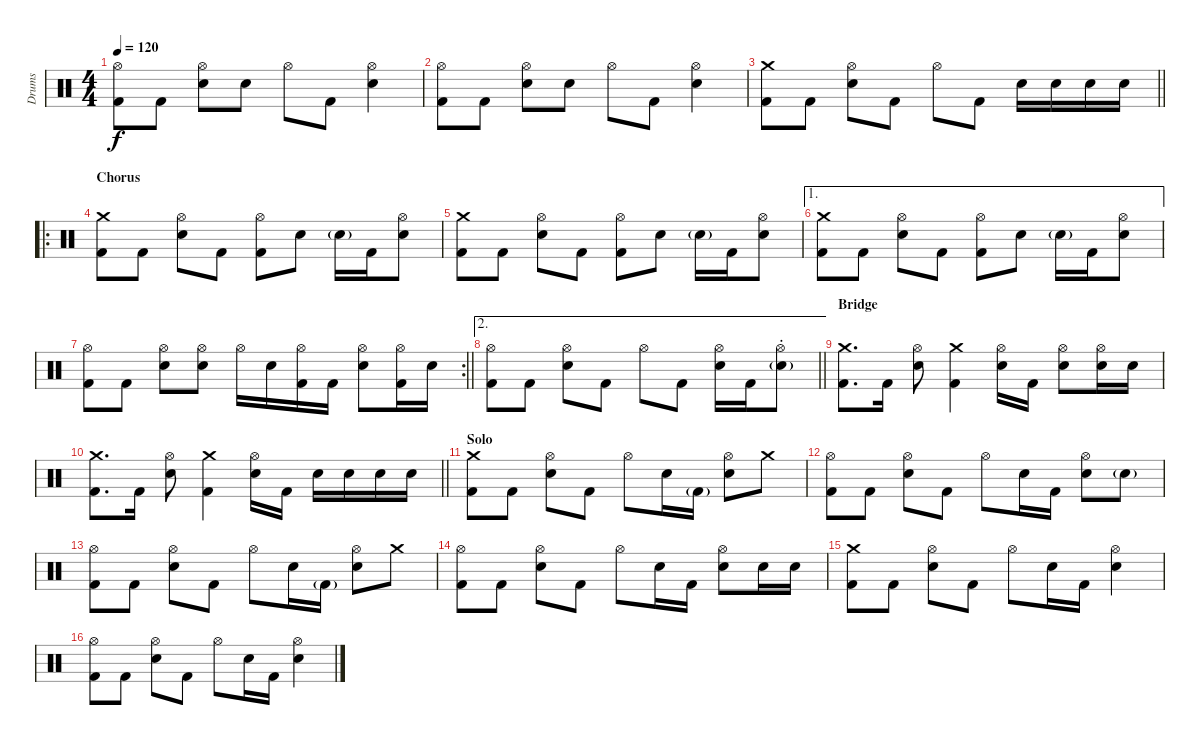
\track ("Drums" "Drums") {instrument percussion}
\staff {score}
\articulation defaults
\ts (4 4)
\tempo 120
\clef neutral
\ks c
("Hi-Hat (open)" "Kick (hit) 2").8{dy f} "Kick (hit) 2".8 ("Hi-Hat (open)" "Electric Snare (hit)").8 "Electric Snare (hit)".8 "Hi-Hat (open)".8 "Kick (hit) 2".8 ("Hi-Hat (open)" "Electric Snare (hit)").4 |
("Hi-Hat (open)" "Kick (hit) 2").8 "Kick (hit) 2".8 ("Hi-Hat (open)" "Electric Snare (hit)").8 "Electric Snare (hit)".8 "Hi-Hat (open)".8 "Kick (hit) 2".8 ("Hi-Hat (open)" "Electric Snare (hit)").4 |
\barLineRight lightlight
("Crash medium (hit)" "Kick (hit) 2").8 "Kick (hit) 2".8 ("Hi-Hat (open)" "Electric Snare (hit)").8 "Kick (hit) 2".8 "Hi-Hat (open)".8 "Kick (hit) 2".8 "Electric Snare (hit)".16 "Electric Snare (hit)".16 "Electric Snare (hit)".16 "Electric Snare (hit)".16 |
\ro
\section ("" "Chorus")
("Crash medium (hit)" "Kick (hit) 2").8 "Kick (hit) 2".8 ("Hi-Hat (open)" "Electric Snare (hit)").8 "Kick (hit) 2".8 ("Hi-Hat (open)" "Kick (hit) 2").8 "Electric Snare (hit)".8 "Electric Snare (hit)"{g}.16 "Kick (hit) 2".16 ("Hi-Hat (open)" "Electric Snare (hit)").8 |
("Crash medium (hit)" "Kick (hit) 2").8 "Kick (hit) 2".8 ("Hi-Hat (open)" "Electric Snare (hit)").8 "Kick (hit) 2".8 ("Hi-Hat (open)" "Kick (hit) 2").8 "Electric Snare (hit)".8 "Electric Snare (hit)"{g}.16 "Kick (hit) 2".16 ("Hi-Hat (open)" "Electric Snare (hit)").8 |
\ae 1
("Crash medium (hit)" "Kick (hit) 2").8 "Kick (hit) 2".8 ("Hi-Hat (open)" "Electric Snare (hit)").8 "Kick (hit) 2".8 ("Hi-Hat (open)" "Kick (hit) 2").8 "Electric Snare (hit)".8 "Electric Snare (hit)"{g}.16 "Kick (hit) 2".16 ("Hi-Hat (open)" "Electric Snare (hit)").8 |
\rc 2
\barLineRight lightlight
("Hi-Hat (open)" "Kick (hit) 2").8 "Kick (hit) 2".8 ("Hi-Hat (open)" "Electric Snare (hit)").8 ("Hi-Hat (open)" "Electric Snare (hit)").8 "Hi-Hat (open)".16 "Electric Snare (hit)".16 ("Hi-Hat (open)" "Kick (hit) 2").16 "Kick (hit) 2".16 ("Hi-Hat (open)" "Electric Snare (hit)").8 ("Hi-Hat (open)" "Kick (hit) 2").16 "Electric Snare (hit)".16 |
\ae 2
\barLineRight lightlight
("Hi-Hat (open)" "Kick (hit) 2").8 "Kick (hit) 2".8 ("Hi-Hat (open)" "Electric Snare (hit)").8 "Kick (hit) 2".8 "Hi-Hat (open)".8 "Kick (hit) 2".8 ("Hi-Hat (open)" "Electric Snare (hit)").16 "Kick (hit) 2".16 ("Hi-Hat (open)"{st} "Electric Snare (hit)"{g}).8 |
\section ("" "Bridge")
("Crash medium (hit)" "Kick (hit) 2").8{d} "Kick (hit) 2".16 ("Hi-Hat (open)" "Electric Snare (hit)").8 ("Crash medium (hit)" "Kick (hit) 2").4 ("Hi-Hat (open)" "Electric Snare (hit)").16 "Kick (hit) 2".16 ("Hi-Hat (open)" "Electric Snare (hit)").8 ("Hi-Hat (open)" "Electric Snare (hit)").16 "Electric Snare (hit)".16 |
\barLineRight lightlight
("Crash medium (hit)" "Kick (hit) 2").8{d} "Kick (hit) 2".16 ("Hi-Hat (open)" "Electric Snare (hit)").8 ("Crash medium (hit)" "Kick (hit) 2").4 ("Hi-Hat (open)" "Electric Snare (hit)").16 "Kick (hit) 2".16 "Electric Snare (hit)".16 "Electric Snare (hit)".16 "Electric Snare (hit)".16 "Electric Snare (hit)".16 |
\section ("" "Solo")
("Crash medium (hit)" "Kick (hit) 2").8 "Kick (hit) 2".8 ("Hi-Hat (open)" "Electric Snare (hit)").8 "Kick (hit) 2".8 "Hi-Hat (open)".8 "Electric Snare (hit)".16 "Kick (hit) 2"{g}.16 ("Hi-Hat (open)" "Electric Snare (hit)").8 "Crash medium (hit)".8 |
("Hi-Hat (open)" "Kick (hit) 2").8 "Kick (hit) 2".8 ("Hi-Hat (open)" "Electric Snare (hit)").8 "Kick (hit) 2".8 "Hi-Hat (open)".8 "Electric Snare (hit)".16 "Kick (hit) 2".16 ("Hi-Hat (open)" "Electric Snare (hit)").8 "Electric Snare (hit)"{g}.8 |
("Hi-Hat (open)" "Kick (hit) 2").8 "Kick (hit) 2".8 ("Hi-Hat (open)" "Electric Snare (hit)").8 "Kick (hit) 2".8 "Hi-Hat (open)".8 "Electric Snare (hit)".16 "Kick (hit) 2"{g}.16 ("Hi-Hat (open)" "Electric Snare (hit)").8 "Crash medium (hit)".8 |
("Hi-Hat (open)" "Kick (hit) 2").8 "Kick (hit) 2".8 ("Hi-Hat (open)" "Electric Snare (hit)").8 "Kick (hit) 2".8 "Hi-Hat (open)".8 "Electric Snare (hit)".16 "Kick (hit) 2".16 ("Hi-Hat (open)" "Electric Snare (hit)").8 "Electric Snare (hit)".16 "Electric Snare (hit)".16 |
("Crash medium (hit)" "Kick (hit) 2").8 "Kick (hit) 2".8 ("Hi-Hat (open)" "Electric Snare (hit)").8 "Kick (hit) 2".8 "Hi-Hat (open)".8 "Electric Snare (hit)".16 "Kick (hit) 2".16 ("Hi-Hat (open)" "Electric Snare (hit)").4 |
("Hi-Hat (open)" "Kick (hit) 2").8 "Kick (hit) 2".8 ("Hi-Hat (open)" "Electric Snare (hit)").8 "Kick (hit) 2".8 "Hi-Hat (open)".8 "Electric Snare (hit)".16 "Kick (hit) 2".16 ("Hi-Hat (open)" "Electric Snare (hit)").4
